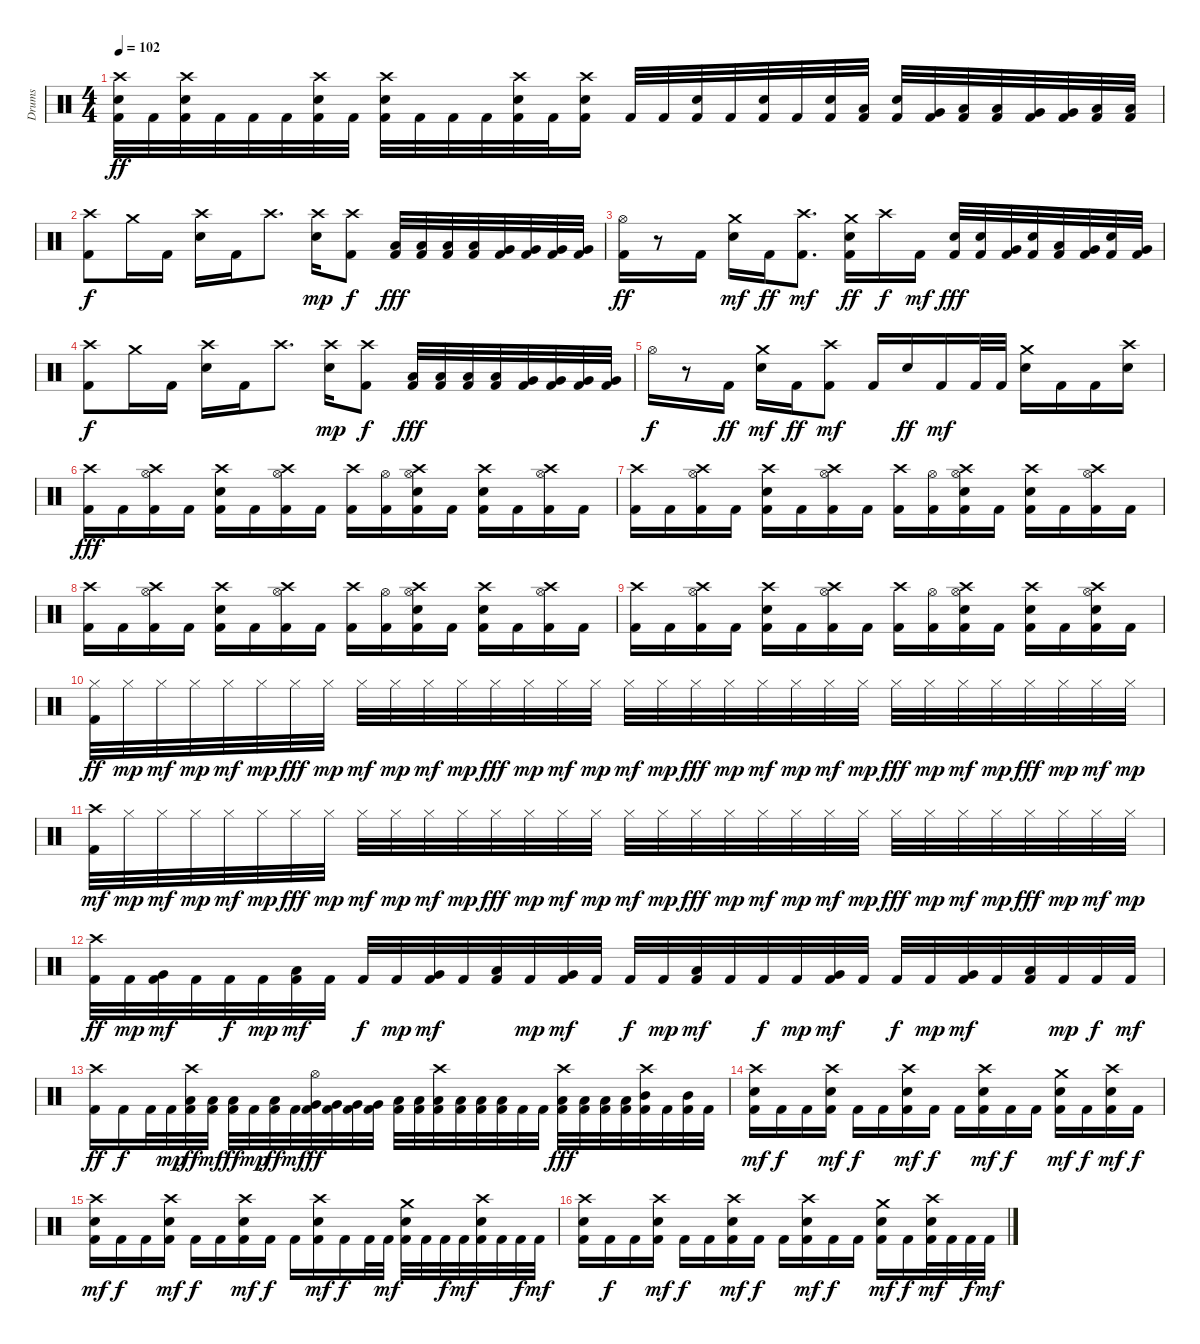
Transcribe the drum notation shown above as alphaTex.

\track ("Drums" "Drums") {instrument percussion}
\staff {score}
\articulation defaults
\ts (4 4)
\tempo 102
\clef neutral
\ks c
("Crash high (hit)" "Electric Snare (hit)" "Kick (hit) 2").32{dy ff} "Kick (hit) 2".32 ("Crash high (hit)" "Electric Snare (hit)" "Kick (hit) 2").32 "Kick (hit) 2".32 "Kick (hit) 2".32 "Kick (hit) 2".32 ("Crash high (hit)" "Electric Snare (hit)" "Kick (hit) 2").32 "Kick (hit) 2".32 ("Crash high (hit)" "Electric Snare (hit)" "Kick (hit) 2").32 "Kick (hit) 2".32 "Kick (hit) 2".32 "Kick (hit) 2".32 ("Crash high (hit)" "Electric Snare (hit)" "Kick (hit) 2").32 "Kick (hit) 2".32 ("Crash high (hit)" "Electric Snare (hit)" "Kick (hit) 2").16 "Kick (hit) 2".32 "Kick (hit) 2".32 ("Electric Snare (hit)" "Kick (hit) 2").32 "Kick (hit) 2".32 ("Electric Snare (hit)" "Kick (hit) 2").32 "Kick (hit) 2".32 ("Electric Snare (hit)" "Kick (hit) 2").32 ("Low Tom (hit)" "Kick (hit) 2").32 ("Electric Snare (hit)" "Kick (hit) 2").32 ("Very Low Tom (hit)" "Kick (hit) 2").32 ("Low Tom (hit)" "Kick (hit) 2").32 ("Low Tom (hit)" "Kick (hit) 2").32 ("Very Low Tom (hit)" "Kick (hit) 2").32 ("Very Low Tom (hit)" "Kick (hit) 2").32 ("Low Floor Tom (hit)" "Kick (hit) 2").32 ("Low Floor Tom (hit)" "Kick (hit) 2").32 |
("Crash high (hit)" "Kick (hit) 2").8{dy f} "Crash medium (hit)".16 "Kick (hit) 2".16 ("Crash high (hit)" "Electric Snare (hit)").16 "Kick (hit) 2".16 "Crash high (hit)".8{d} ("Crash high (hit)" "Electric Snare (hit)").16{dy mp} ("Crash high (hit)" "Kick (hit) 2").8{dy f} ("Low Tom (hit)" "Kick (hit) 2").32{dy fff} ("Low Tom (hit)" "Kick (hit) 2").32 ("Low Tom (hit)" "Kick (hit) 2").32 ("Low Tom (hit)" "Kick (hit) 2").32 ("Very Low Tom (hit)" "Kick (hit) 2").32 ("Very Low Tom (hit)" "Kick (hit) 2").32 ("Very Low Tom (hit)" "Kick (hit) 2").32 ("Very Low Tom (hit)" "Kick (hit) 2").32 |
("Hi-Hat (open)" "Kick (hit) 2").16{dy ff} r.8 "Kick (hit) 2".16 ("Crash medium (hit)" "Electric Snare (hit)").16{dy mf} "Kick (hit) 2".16{dy ff} ("Crash high (hit)" "Kick (hit) 2").8{d dy mf} ("Crash medium (hit)" "Electric Snare (hit)" "Kick (hit) 2").16{dy ff} "Crash high (hit)".16{dy f} "Kick (hit) 2".16{dy mf} ("Electric Snare (hit)" "Kick (hit) 2").32{dy fff} ("Electric Snare (hit)" "Kick (hit) 2").32 ("Very Low Tom (hit)" "Kick (hit) 2").32 ("Electric Snare (hit)" "Kick (hit) 2").32 ("Low Floor Tom (hit)" "Kick (hit) 2").32 ("Very Low Tom (hit)" "Kick (hit) 2").32 ("Electric Snare (hit)" "Kick (hit) 2").32 ("Very Low Tom (hit)" "Kick (hit) 2").32 |
("Crash high (hit)" "Kick (hit) 2").8{dy f} "Crash medium (hit)".16 "Kick (hit) 2".16 ("Crash high (hit)" "Electric Snare (hit)").16 "Kick (hit) 2".16 "Crash high (hit)".8{d} ("Crash high (hit)" "Electric Snare (hit)").16{dy mp} ("Crash high (hit)" "Kick (hit) 2").8{dy f} ("Low Tom (hit)" "Kick (hit) 2").32{dy fff} ("Low Tom (hit)" "Kick (hit) 2").32 ("Low Tom (hit)" "Kick (hit) 2").32 ("Low Tom (hit)" "Kick (hit) 2").32 ("Very Low Tom (hit)" "Kick (hit) 2").32 ("Very Low Tom (hit)" "Kick (hit) 2").32 ("Very Low Tom (hit)" "Kick (hit) 2").32 ("Very Low Tom (hit)" "Kick (hit) 2").32 |
"Hi-Hat (open)".16{dy f} r.8 "Kick (hit) 2".16{dy ff} ("Crash medium (hit)" "Electric Snare (hit)").16{dy mf} "Kick (hit) 2".16{dy ff} ("Crash high (hit)" "Kick (hit) 2").8{dy mf} "Kick (hit) 2".16 "Electric Snare (hit)".16{dy ff} "Kick (hit) 2".16{dy mf} "Kick (hit) 2".32 "Kick (hit) 2".32 ("Crash medium (hit)" "Electric Snare (hit)").16 "Kick (hit) 2".16 "Kick (hit) 2".16 ("Crash high (hit)" "Electric Snare (hit)").16 |
("Crash high (hit)" "Kick (hit) 2").16{dy fff} "Kick (hit) 2".16 ("Crash high (hit)" "Hi-Hat (open)" "Kick (hit) 2").16 "Kick (hit) 2".16 ("Crash high (hit)" "Electric Snare (hit)" "Kick (hit) 2").16 "Kick (hit) 2".16 ("Crash high (hit)" "Hi-Hat (open)" "Kick (hit) 2").16 "Kick (hit) 2".16 ("Crash high (hit)" "Kick (hit) 2").16 ("Hi-Hat (open)" "Kick (hit) 2").16 ("Crash high (hit)" "Hi-Hat (open)" "Electric Snare (hit)" "Kick (hit) 2").16 "Kick (hit) 2".16 ("Crash high (hit)" "Electric Snare (hit)" "Kick (hit) 2").16 "Kick (hit) 2".16 ("Crash high (hit)" "Hi-Hat (open)" "Kick (hit) 2").16 "Kick (hit) 2".16 |
("Crash high (hit)" "Kick (hit) 2").16 "Kick (hit) 2".16 ("Crash high (hit)" "Hi-Hat (open)" "Kick (hit) 2").16 "Kick (hit) 2".16 ("Crash high (hit)" "Electric Snare (hit)" "Kick (hit) 2").16 "Kick (hit) 2".16 ("Crash high (hit)" "Hi-Hat (open)" "Kick (hit) 2").16 "Kick (hit) 2".16 ("Crash high (hit)" "Kick (hit) 2").16 ("Hi-Hat (open)" "Kick (hit) 2").16 ("Crash high (hit)" "Hi-Hat (open)" "Electric Snare (hit)" "Kick (hit) 2").16 "Kick (hit) 2".16 ("Crash high (hit)" "Electric Snare (hit)" "Kick (hit) 2").16 "Kick (hit) 2".16 ("Crash high (hit)" "Hi-Hat (open)" "Kick (hit) 2").16 "Kick (hit) 2".16 |
("Crash high (hit)" "Kick (hit) 2").16 "Kick (hit) 2".16 ("Crash high (hit)" "Hi-Hat (open)" "Kick (hit) 2").16 "Kick (hit) 2".16 ("Crash high (hit)" "Electric Snare (hit)" "Kick (hit) 2").16 "Kick (hit) 2".16 ("Crash high (hit)" "Hi-Hat (open)" "Kick (hit) 2").16 "Kick (hit) 2".16 ("Crash high (hit)" "Kick (hit) 2").16 ("Hi-Hat (open)" "Kick (hit) 2").16 ("Crash high (hit)" "Hi-Hat (open)" "Electric Snare (hit)" "Kick (hit) 2").16 "Kick (hit) 2".16 ("Crash high (hit)" "Electric Snare (hit)" "Kick (hit) 2").16 "Kick (hit) 2".16 ("Crash high (hit)" "Hi-Hat (open)" "Kick (hit) 2").16 "Kick (hit) 2".16 |
("Crash high (hit)" "Kick (hit) 2").16 "Kick (hit) 2".16 ("Crash high (hit)" "Hi-Hat (open)" "Kick (hit) 2").16 "Kick (hit) 2".16 ("Crash high (hit)" "Electric Snare (hit)" "Kick (hit) 2").16 "Kick (hit) 2".16 ("Crash high (hit)" "Hi-Hat (open)" "Kick (hit) 2").16 "Kick (hit) 2".16 ("Crash high (hit)" "Kick (hit) 2").16 ("Hi-Hat (open)" "Kick (hit) 2").16 ("Crash high (hit)" "Hi-Hat (open)" "Electric Snare (hit)" "Kick (hit) 2").16 "Kick (hit) 2".16 ("Crash high (hit)" "Electric Snare (hit)" "Kick (hit) 2").16 "Kick (hit) 2".16 ("Crash high (hit)" "Hi-Hat (open)" "Electric Snare (hit)" "Kick (hit) 2").16 "Kick (hit) 2".16 |
("Hi-Hat (closed)" "Kick (hit) 2").32{dy ff} "Hi-Hat (closed)".32{dy mp} "Hi-Hat (closed)".32{dy mf} "Hi-Hat (closed)".32{dy mp} "Hi-Hat (closed)".32{dy mf} "Hi-Hat (closed)".32{dy mp} "Hi-Hat (closed)".32{dy fff} "Hi-Hat (closed)".32{dy mp} "Hi-Hat (closed)".32{dy mf} "Hi-Hat (closed)".32{dy mp} "Hi-Hat (closed)".32{dy mf} "Hi-Hat (closed)".32{dy mp} "Hi-Hat (closed)".32{dy fff} "Hi-Hat (closed)".32{dy mp} "Hi-Hat (closed)".32{dy mf} "Hi-Hat (closed)".32{dy mp} "Hi-Hat (closed)".32{dy mf} "Hi-Hat (closed)".32{dy mp} "Hi-Hat (closed)".32{dy fff} "Hi-Hat (closed)".32{dy mp} "Hi-Hat (closed)".32{dy mf} "Hi-Hat (closed)".32{dy mp} "Hi-Hat (closed)".32{dy mf} "Hi-Hat (closed)".32{dy mp} "Hi-Hat (closed)".32{dy fff} "Hi-Hat (closed)".32{dy mp} "Hi-Hat (closed)".32{dy mf} "Hi-Hat (closed)".32{dy mp} "Hi-Hat (closed)".32{dy fff} "Hi-Hat (closed)".32{dy mp} "Hi-Hat (closed)".32{dy mf} "Hi-Hat (closed)".32{dy mp} |
("Crash high (hit)" "Kick (hit) 2").32{dy mf} "Hi-Hat (closed)".32{dy mp} "Hi-Hat (closed)".32{dy mf} "Hi-Hat (closed)".32{dy mp} "Hi-Hat (closed)".32{dy mf} "Hi-Hat (closed)".32{dy mp} "Hi-Hat (closed)".32{dy fff} "Hi-Hat (closed)".32{dy mp} "Hi-Hat (closed)".32{dy mf} "Hi-Hat (closed)".32{dy mp} "Hi-Hat (closed)".32{dy mf} "Hi-Hat (closed)".32{dy mp} "Hi-Hat (closed)".32{dy fff} "Hi-Hat (closed)".32{dy mp} "Hi-Hat (closed)".32{dy mf} "Hi-Hat (closed)".32{dy mp} "Hi-Hat (closed)".32{dy mf} "Hi-Hat (closed)".32{dy mp} "Hi-Hat (closed)".32{dy fff} "Hi-Hat (closed)".32{dy mp} "Hi-Hat (closed)".32{dy mf} "Hi-Hat (closed)".32{dy mp} "Hi-Hat (closed)".32{dy mf} "Hi-Hat (closed)".32{dy mp} "Hi-Hat (closed)".32{dy fff} "Hi-Hat (closed)".32{dy mp} "Hi-Hat (closed)".32{dy mf} "Hi-Hat (closed)".32{dy mp} "Hi-Hat (closed)".32{dy fff} "Hi-Hat (closed)".32{dy mp} "Hi-Hat (closed)".32{dy mf} "Hi-Hat (closed)".32{dy mp} |
("Crash high (hit)" "Kick (hit) 2").32{dy ff} "Kick (hit) 2".32{dy mp} ("Very Low Tom (hit)" "Kick (hit) 2").32{dy mf} "Kick (hit) 2".32 "Kick (hit) 2".32{dy f} "Kick (hit) 2".32{dy mp} ("Low Floor Tom (hit)" "Kick (hit) 2").32{dy mf} "Kick (hit) 2".32 "Kick (hit) 2".32{dy f} "Kick (hit) 2".32{dy mp} ("Very Low Tom (hit)" "Kick (hit) 2").32{dy mf} "Kick (hit) 2".32 ("Low Floor Tom (hit)" "Kick (hit) 2").32 "Kick (hit) 2".32{dy mp} ("Very Low Tom (hit)" "Kick (hit) 2").32{dy mf} "Kick (hit) 2".32 "Kick (hit) 2".32{dy f} "Kick (hit) 2".32{dy mp} ("Low Floor Tom (hit)" "Kick (hit) 2").32{dy mf} "Kick (hit) 2".32 "Kick (hit) 2".32{dy f} "Kick (hit) 2".32{dy mp} ("Very Low Tom (hit)" "Kick (hit) 2").32{dy mf} "Kick (hit) 2".32 "Kick (hit) 2".32{dy f} "Kick (hit) 2".32{dy mp} ("Very Low Tom (hit)" "Kick (hit) 2").32{dy mf} "Kick (hit) 2".32 ("Low Floor Tom (hit)" "Kick (hit) 2").32 "Kick (hit) 2".32{dy mp} "Kick (hit) 2".32{dy f} "Kick (hit) 2".32{dy mf} |
("Crash high (hit)" "Kick (hit) 2").16{dy ff} "Kick (hit) 2".16{dy f} "Kick (hit) 2".32 "Kick (hit) 2".32{dy mp} ("Crash high (hit)" "Low Floor Tom (hit)" "Kick (hit) 2").32{dy ff} ("Low Floor Tom (hit)" "Kick (hit) 2").32{dy mf} ("Low Floor Tom (hit)" "Kick (hit) 2").32{dy ff} "Kick (hit) 2".32{dy mp} ("Low Floor Tom (hit)" "Kick (hit) 2").32{dy ff} "Kick (hit) 2".32{dy mf} ("Hi-Hat (open)" "Very Low Tom (hit)" "Kick (hit) 2").32{dy ff} ("Very Low Tom (hit)" "Kick (hit) 2").32 ("Very Low Tom (hit)" "Kick (hit) 2").32 ("Very Low Tom (hit)" "Kick (hit) 2").32 ("Low Tom (hit)" "Kick (hit) 2").32 ("Low Tom (hit)" "Kick (hit) 2").32 ("Crash high (hit)" "Low Tom (hit)" "Kick (hit) 2").32 ("Low Tom (hit)" "Kick (hit) 2").32 ("Low Tom (hit)" "Kick (hit) 2").32 ("Low Tom (hit)" "Kick (hit) 2").32 "Kick (hit) 2".32 "Kick (hit) 2".32 ("Crash high (hit)" "Low Tom (hit)" "Kick (hit) 2").32{dy fff} ("Low Tom (hit)" "Kick (hit) 2").32 ("Low Tom (hit)" "Kick (hit) 2").32 ("Low Tom (hit)" "Kick (hit) 2").32 ("Crash high (hit)" "Mid Tom (hit)" "Kick (hit) 2").32 "Kick (hit) 2".32 ("Mid Tom (hit)" "Kick (hit) 2").32 "Kick (hit) 2".32 |
("Crash high (hit)" "Electric Snare (hit)" "Kick (hit) 2").16{dy mf} "Kick (hit) 2".16{dy f} "Kick (hit) 2".16 ("Crash high (hit)" "Electric Snare (hit)" "Kick (hit) 2").16{dy mf} "Kick (hit) 2".16{dy f} "Kick (hit) 2".16 ("Crash high (hit)" "Electric Snare (hit)" "Kick (hit) 2").16{dy mf} "Kick (hit) 2".16{dy f} "Kick (hit) 2".16 ("Crash high (hit)" "Electric Snare (hit)" "Kick (hit) 2").16{dy mf} "Kick (hit) 2".16{dy f} "Kick (hit) 2".16 ("Crash medium (hit)" "Electric Snare (hit)" "Kick (hit) 2").16{dy mf} "Kick (hit) 2".16{dy f} ("Crash high (hit)" "Electric Snare (hit)" "Kick (hit) 2").16{dy mf} "Kick (hit) 2".16{dy f} |
("Crash high (hit)" "Electric Snare (hit)" "Kick (hit) 2").16{dy mf} "Kick (hit) 2".16{dy f} "Kick (hit) 2".16 ("Crash high (hit)" "Electric Snare (hit)" "Kick (hit) 2").16{dy mf} "Kick (hit) 2".16{dy f} "Kick (hit) 2".16 ("Crash high (hit)" "Electric Snare (hit)" "Kick (hit) 2").16{dy mf} "Kick (hit) 2".16{dy f} "Kick (hit) 2".16 ("Crash high (hit)" "Electric Snare (hit)" "Kick (hit) 2").16{dy mf} "Kick (hit) 2".16{dy f} "Kick (hit) 2".32 "Kick (hit) 2".32{dy mf} ("Crash medium (hit)" "Electric Snare (hit)" "Kick (hit) 2").32 "Kick (hit) 2".32 "Kick (hit) 2".32{dy f} "Kick (hit) 2".32{dy mf} ("Crash high (hit)" "Electric Snare (hit)" "Kick (hit) 2").32 "Kick (hit) 2".32 "Kick (hit) 2".32{dy f} "Kick (hit) 2".32{dy mf} |
("Crash high (hit)" "Electric Snare (hit)" "Kick (hit) 2").16 "Kick (hit) 2".16{dy f} "Kick (hit) 2".16 ("Crash high (hit)" "Electric Snare (hit)" "Kick (hit) 2").16{dy mf} "Kick (hit) 2".16{dy f} "Kick (hit) 2".16 ("Crash high (hit)" "Electric Snare (hit)" "Kick (hit) 2").16{dy mf} "Kick (hit) 2".16{dy f} "Kick (hit) 2".16 ("Crash high (hit)" "Electric Snare (hit)" "Kick (hit) 2").16{dy mf} "Kick (hit) 2".16{dy f} "Kick (hit) 2".16 ("Crash medium (hit)" "Electric Snare (hit)" "Kick (hit) 2").16{dy mf} "Kick (hit) 2".16{dy f} ("Crash high (hit)" "Electric Snare (hit)" "Kick (hit) 2").32{dy mf} "Kick (hit) 2".32 "Kick (hit) 2".32{dy f} "Kick (hit) 2".32{dy mf}
